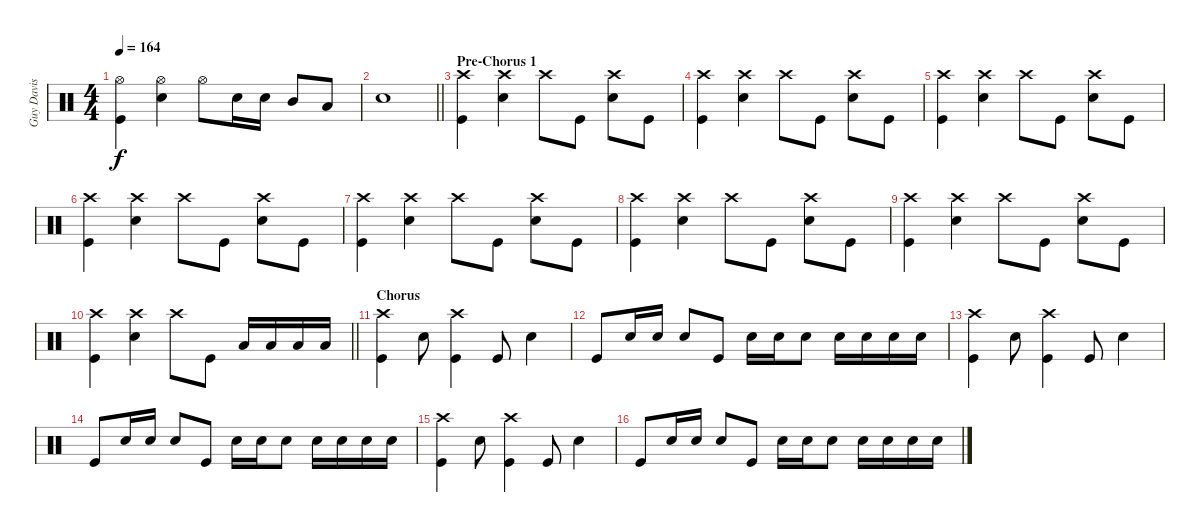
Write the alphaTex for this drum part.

\track ("Guy Davis" "Guy Davis") {instrument percussion}
\staff {score}
\articulation defaults
\ts (4 4)
\tempo 164
\clef neutral
\ks c
("Hi-Hat (open)" "Kick (hit)").4{dy f} ("Snare (hit) 2" "Hi-Hat (open)").4 "Hi-Hat (open)".8 "Snare (hit) 2".16 "Snare (hit) 2".16 "Mid Tom (hit)".8 "Low Tom (hit)".8 |
\barLineRight lightlight "Snare (hit) 2".1
|
\section ("" "Pre-Chorus 1")
("Crash high (hit)" "Kick (hit)").4 ("Snare (hit) 2" "Crash high (hit)").4 "Crash high (hit)".8 "Kick (hit)".8 ("Snare (hit) 2" "Crash high (hit)").8 "Kick (hit)".8 |
("Crash high (hit)" "Kick (hit)").4 ("Snare (hit) 2" "Crash high (hit)").4 "Crash high (hit)".8 "Kick (hit)".8 ("Snare (hit) 2" "Crash high (hit)").8 "Kick (hit)".8 |
("Crash high (hit)" "Kick (hit)").4 ("Snare (hit) 2" "Crash high (hit)").4 "Crash high (hit)".8 "Kick (hit)".8 ("Snare (hit) 2" "Crash high (hit)").8 "Kick (hit)".8 |
("Crash high (hit)" "Kick (hit)").4 ("Snare (hit) 2" "Crash high (hit)").4 "Crash high (hit)".8 "Kick (hit)".8 ("Snare (hit) 2" "Crash high (hit)").8 "Kick (hit)".8 |
("Crash high (hit)" "Kick (hit)").4 ("Snare (hit) 2" "Crash high (hit)").4 "Crash high (hit)".8 "Kick (hit)".8 ("Snare (hit) 2" "Crash high (hit)").8 "Kick (hit)".8 |
("Crash high (hit)" "Kick (hit)").4 ("Snare (hit) 2" "Crash high (hit)").4 "Crash high (hit)".8 "Kick (hit)".8 ("Snare (hit) 2" "Crash high (hit)").8 "Kick (hit)".8 |
("Crash high (hit)" "Kick (hit)").4 ("Snare (hit) 2" "Crash high (hit)").4 "Crash high (hit)".8 "Kick (hit)".8 ("Snare (hit) 2" "Crash high (hit)").8 "Kick (hit)".8 |
\barLineRight lightlight
("Crash high (hit)" "Kick (hit)").4 ("Snare (hit) 2" "Crash high (hit)").4 "Crash high (hit)".8 "Kick (hit)".8 "Low Tom (hit)".16 "Low Tom (hit)".16 "Low Tom (hit)".16 "Low Tom (hit)".16 |
\section ("" "Chorus")
("Crash high (hit)" "Kick (hit)").4 "Snare (hit) 2".8 ("Crash high (hit)" "Kick (hit)").4 "Kick (hit)".8 "Snare (hit) 2".4 |
"Kick (hit)".8 "Snare (hit) 2".16 "Snare (hit) 2".16 "Snare (hit) 2".8 "Kick (hit)".8 "Snare (hit) 2".16 "Snare (hit) 2".16 "Snare (hit) 2".8 "Snare (hit) 2".16 "Snare (hit) 2".16 "Snare (hit) 2".16 "Snare (hit) 2".16 |
("Crash high (hit)" "Kick (hit)").4 "Snare (hit) 2".8 ("Crash high (hit)" "Kick (hit)").4 "Kick (hit)".8 "Snare (hit) 2".4 |
"Kick (hit)".8 "Snare (hit) 2".16 "Snare (hit) 2".16 "Snare (hit) 2".8 "Kick (hit)".8 "Snare (hit) 2".16 "Snare (hit) 2".16 "Snare (hit) 2".8 "Snare (hit) 2".16 "Snare (hit) 2".16 "Snare (hit) 2".16 "Snare (hit) 2".16 |
("Crash high (hit)" "Kick (hit)").4 "Snare (hit) 2".8 ("Crash high (hit)" "Kick (hit)").4 "Kick (hit)".8 "Snare (hit) 2".4 |
"Kick (hit)".8 "Snare (hit) 2".16 "Snare (hit) 2".16 "Snare (hit) 2".8 "Kick (hit)".8 "Snare (hit) 2".16 "Snare (hit) 2".16 "Snare (hit) 2".8 "Snare (hit) 2".16 "Snare (hit) 2".16 "Snare (hit) 2".16 "Snare (hit) 2".16
